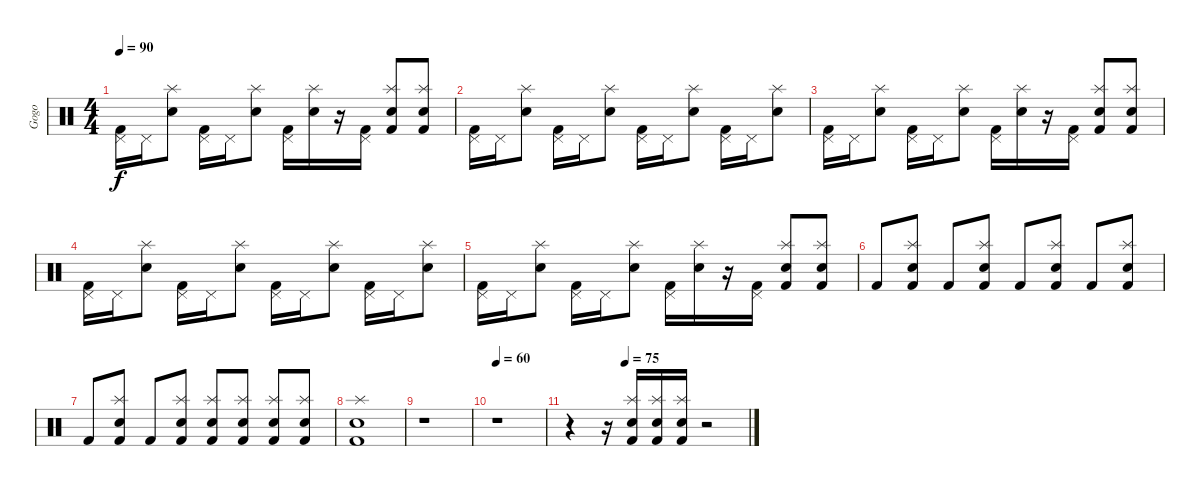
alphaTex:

\track ("Gogo" "Gogo") {instrument percussion}
\staff {score}
\articulation defaults
\ts (4 4)
\tempo 90
\clef neutral
\ks c
("Pedal Hi-Hat (hit)" "Kick (hit) 2").16{dy f} "Pedal Hi-Hat (hit)".16 ("Splash (hit)" "Electric Snare (hit)").8 ("Pedal Hi-Hat (hit)" "Kick (hit) 2").16 "Pedal Hi-Hat (hit)".16 ("Splash (hit)" "Electric Snare (hit)").8 ("Pedal Hi-Hat (hit)" "Kick (hit) 2").16 ("Splash (hit)" "Electric Snare (hit)").16 r.16 ("Pedal Hi-Hat (hit)" "Kick (hit) 2").16 ("Splash (hit)" "Electric Snare (hit)" "Kick (hit) 2").8 ("Splash (hit)" "Electric Snare (hit)" "Kick (hit) 2").8 |
("Pedal Hi-Hat (hit)" "Kick (hit) 2").16 "Pedal Hi-Hat (hit)".16 ("Splash (hit)" "Electric Snare (hit)").8 ("Pedal Hi-Hat (hit)" "Kick (hit) 2").16 "Pedal Hi-Hat (hit)".16 ("Splash (hit)" "Electric Snare (hit)").8 ("Pedal Hi-Hat (hit)" "Kick (hit) 2").16 "Pedal Hi-Hat (hit)".16 ("Splash (hit)" "Electric Snare (hit)").8 ("Pedal Hi-Hat (hit)" "Kick (hit) 2").16 "Pedal Hi-Hat (hit)".16 ("Splash (hit)" "Electric Snare (hit)").8 |
("Pedal Hi-Hat (hit)" "Kick (hit) 2").16 "Pedal Hi-Hat (hit)".16 ("Splash (hit)" "Electric Snare (hit)").8 ("Pedal Hi-Hat (hit)" "Kick (hit) 2").16 "Pedal Hi-Hat (hit)".16 ("Splash (hit)" "Electric Snare (hit)").8 ("Pedal Hi-Hat (hit)" "Kick (hit) 2").16 ("Splash (hit)" "Electric Snare (hit)").16 r.16 ("Pedal Hi-Hat (hit)" "Kick (hit) 2").16 ("Splash (hit)" "Electric Snare (hit)" "Kick (hit) 2").8 ("Splash (hit)" "Electric Snare (hit)" "Kick (hit) 2").8 |
("Pedal Hi-Hat (hit)" "Kick (hit) 2").16 "Pedal Hi-Hat (hit)".16 ("Splash (hit)" "Electric Snare (hit)").8 ("Pedal Hi-Hat (hit)" "Kick (hit) 2").16 "Pedal Hi-Hat (hit)".16 ("Splash (hit)" "Electric Snare (hit)").8 ("Pedal Hi-Hat (hit)" "Kick (hit) 2").16 "Pedal Hi-Hat (hit)".16 ("Splash (hit)" "Electric Snare (hit)").8 ("Pedal Hi-Hat (hit)" "Kick (hit) 2").16 "Pedal Hi-Hat (hit)".16 ("Splash (hit)" "Electric Snare (hit)").8 |
("Pedal Hi-Hat (hit)" "Kick (hit) 2").16 "Pedal Hi-Hat (hit)".16 ("Splash (hit)" "Electric Snare (hit)").8 ("Pedal Hi-Hat (hit)" "Kick (hit) 2").16 "Pedal Hi-Hat (hit)".16 ("Splash (hit)" "Electric Snare (hit)").8 ("Pedal Hi-Hat (hit)" "Kick (hit) 2").16 ("Splash (hit)" "Electric Snare (hit)").16 r.16 ("Pedal Hi-Hat (hit)" "Kick (hit) 2").16 ("Splash (hit)" "Electric Snare (hit)" "Kick (hit) 2").8 ("Splash (hit)" "Electric Snare (hit)" "Kick (hit) 2").8 |
"Kick (hit) 2".8 ("Splash (hit)" "Electric Snare (hit)" "Kick (hit) 2").8 "Kick (hit) 2".8 ("Splash (hit)" "Electric Snare (hit)" "Kick (hit) 2").8 "Kick (hit) 2".8 ("Splash (hit)" "Electric Snare (hit)" "Kick (hit) 2").8 "Kick (hit) 2".8 ("Splash (hit)" "Electric Snare (hit)" "Kick (hit) 2").8 |
"Kick (hit) 2".8 ("Splash (hit)" "Electric Snare (hit)" "Kick (hit) 2").8 "Kick (hit) 2".8 ("Splash (hit)" "Electric Snare (hit)" "Kick (hit) 2").8 ("Splash (hit)" "Electric Snare (hit)" "Kick (hit) 2").8 ("Splash (hit)" "Electric Snare (hit)" "Kick (hit) 2").8 ("Splash (hit)" "Electric Snare (hit)" "Kick (hit) 2").8 ("Splash (hit)" "Electric Snare (hit)" "Kick (hit) 2").8 |
("Splash (hit)" "Electric Snare (hit)" "Kick (hit) 2").1 |
r.1 |
\tempo 60
r.1 |
\tempo (75 0.3125)
r.4 r.16 ("Splash (hit)" "Electric Snare (hit)" "Kick (hit) 2").16 ("Splash (hit)" "Electric Snare (hit)" "Kick (hit) 2").16 ("Splash (hit)" "Electric Snare (hit)" "Kick (hit) 2").16 r.2
